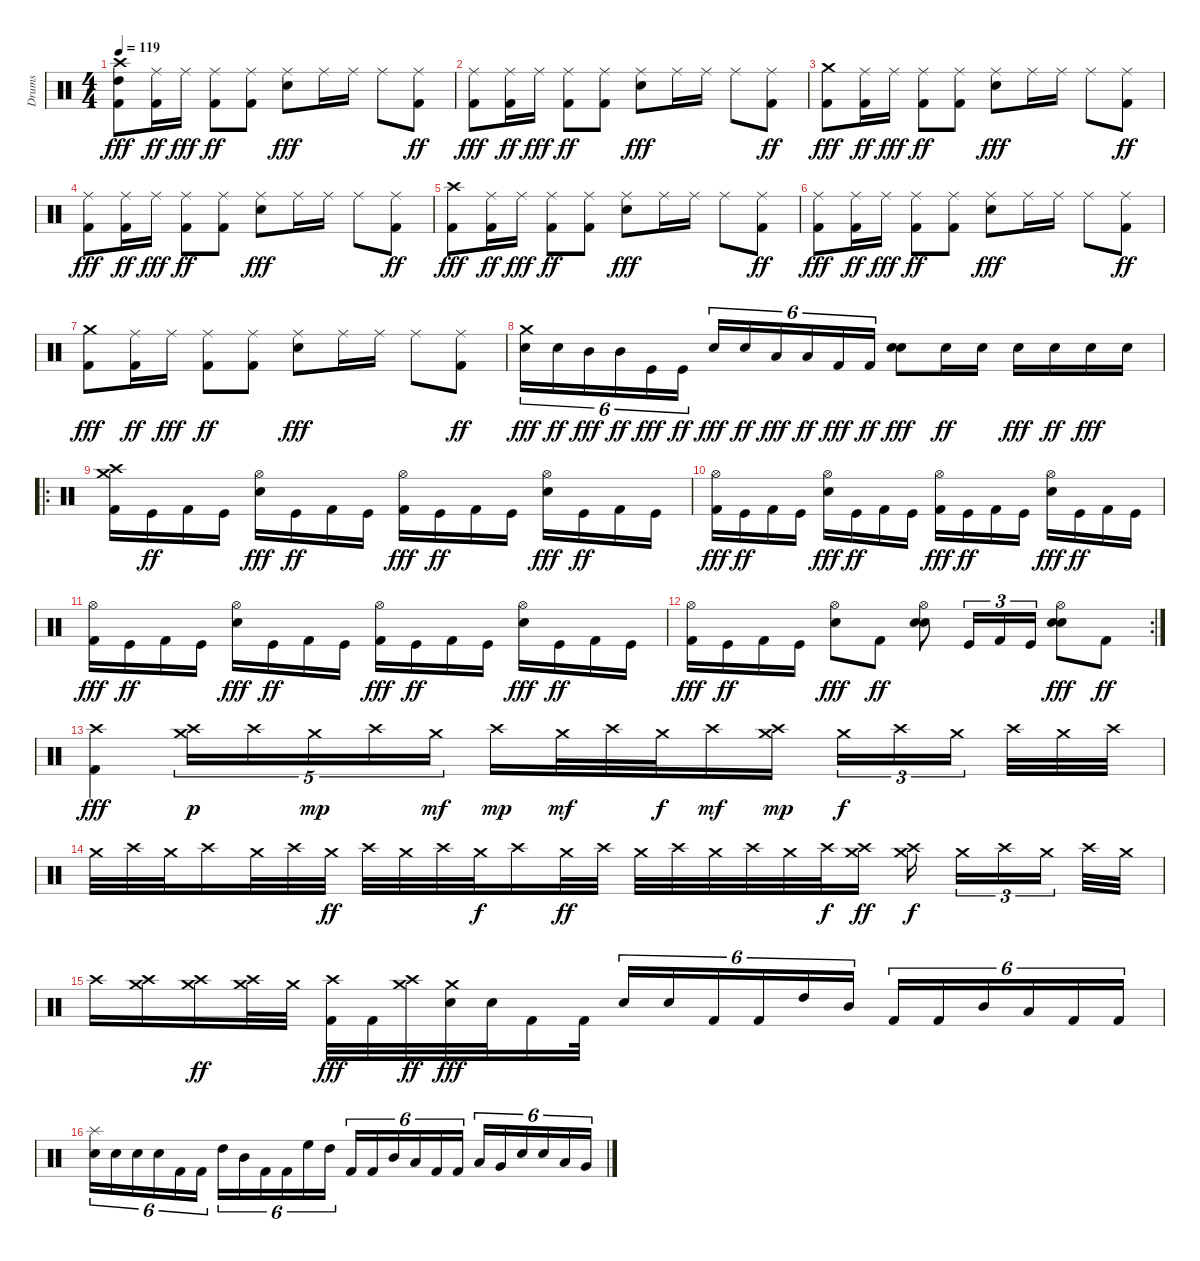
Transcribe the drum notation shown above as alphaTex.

\track ("Drums" "Drums") {instrument percussion}
\staff {score}
\articulation defaults
\ts (4 4)
\tempo 119
\clef neutral
\ks c
("Crash high (hit)" "Kick (hit) 2" "High Tom (hit)").8{dy fff} ("Ride (middle)" "Kick (hit) 2").16{dy ff} "Ride (middle)".16{dy fff} ("Ride (middle)" "Kick (hit) 2").8{dy ff} ("Ride (middle)" "Kick (hit) 2").8 ("Ride (middle)" "Snare (hit) 2").8{dy fff} "Ride (middle)".16 "Ride (middle)".16 "Ride (middle)".8 ("Ride (middle)" "Kick (hit) 2").8{dy ff} |
("Ride (middle)" "Kick (hit) 2").8{dy fff} ("Ride (middle)" "Kick (hit) 2").16{dy ff} "Ride (middle)".16{dy fff} ("Ride (middle)" "Kick (hit) 2").8{dy ff} ("Ride (middle)" "Kick (hit) 2").8 ("Ride (middle)" "Snare (hit) 2").8{dy fff} "Ride (middle)".16 "Ride (middle)".16 "Ride (middle)".8 ("Ride (middle)" "Kick (hit) 2").8{dy ff} |
("Kick (hit) 2" "Crash medium (hit)").8{dy fff} ("Ride (middle)" "Kick (hit) 2").16{dy ff} "Ride (middle)".16{dy fff} ("Ride (middle)" "Kick (hit) 2").8{dy ff} ("Ride (middle)" "Kick (hit) 2").8 ("Ride (middle)" "Snare (hit) 2").8{dy fff} "Ride (middle)".16 "Ride (middle)".16 "Ride (middle)".8 ("Ride (middle)" "Kick (hit) 2").8{dy ff} |
("Ride (middle)" "Kick (hit) 2").8{dy fff} ("Ride (middle)" "Kick (hit) 2").16{dy ff} "Ride (middle)".16{dy fff} ("Ride (middle)" "Kick (hit) 2").8{dy ff} ("Ride (middle)" "Kick (hit) 2").8 ("Ride (middle)" "Snare (hit) 2").8{dy fff} "Ride (middle)".16 "Ride (middle)".16 "Ride (middle)".8 ("Ride (middle)" "Kick (hit) 2").8{dy ff} |
("Kick (hit) 2" "Crash high (hit)").8{dy fff} ("Ride (middle)" "Kick (hit) 2").16{dy ff} "Ride (middle)".16{dy fff} ("Ride (middle)" "Kick (hit) 2").8{dy ff} ("Ride (middle)" "Kick (hit) 2").8 ("Ride (middle)" "Snare (hit) 2").8{dy fff} "Ride (middle)".16 "Ride (middle)".16 "Ride (middle)".8 ("Ride (middle)" "Kick (hit) 2").8{dy ff} |
("Ride (middle)" "Kick (hit) 2").8{dy fff} ("Ride (middle)" "Kick (hit) 2").16{dy ff} "Ride (middle)".16{dy fff} ("Ride (middle)" "Kick (hit) 2").8{dy ff} ("Ride (middle)" "Kick (hit) 2").8 ("Ride (middle)" "Snare (hit) 2").8{dy fff} "Ride (middle)".16 "Ride (middle)".16 "Ride (middle)".8 ("Ride (middle)" "Kick (hit) 2").8{dy ff} |
("Kick (hit) 2" "Crash medium (hit)").8{dy fff} ("Ride (middle)" "Kick (hit) 2").16{dy ff} "Ride (middle)".16{dy fff} ("Ride (middle)" "Kick (hit) 2").8{dy ff} ("Ride (middle)" "Kick (hit) 2").8 ("Ride (middle)" "Snare (hit) 2").8{dy fff} "Ride (middle)".16 "Ride (middle)".16 "Ride (middle)".8 ("Ride (middle)" "Kick (hit) 2").8{dy ff} |
("Electric Snare (hit)" "Crash medium (hit)").16{tu (6 4) dy fff} "Electric Snare (hit)".16{tu (6 4) dy ff} "Mid Tom (hit)".16{tu (6 4) dy fff} "Mid Tom (hit)".16{tu (6 4) dy ff} "Kick (hit)".16{tu (6 4) dy fff} "Kick (hit)".16{tu (6 4) dy ff} "Snare (hit) 2".16{tu (6 4) dy fff} "Electric Snare (hit)".16{tu (6 4) dy ff} "Low Tom (hit)".16{tu (6 4) dy fff} "Low Tom (hit)".16{tu (6 4) dy ff} "Kick (hit) 2".16{tu (6 4) dy fff} "Kick (hit) 2".16{tu (6 4) dy ff} ("Snare (hit) 2" "Snare (hit) 2").8{dy fff} "Snare (hit) 2".16{dy ff} "Snare (hit) 2".16 "Snare (hit) 2".16{dy fff} "Snare (hit) 2".16{dy ff} "Snare (hit) 2".16{dy fff} "Snare (hit) 2".16 |
\ro
("Kick (hit) 2" "Crash high (hit)" "Crash medium (hit)").16 "Kick (hit)".16{dy ff} "Kick (hit) 2".16 "Kick (hit)".16 ("Hi-Hat (open)" "Snare (hit) 2").16{dy fff} "Kick (hit)".16{dy ff} "Kick (hit) 2".16 "Kick (hit)".16 ("Hi-Hat (open)" "Kick (hit) 2").16{dy fff} "Kick (hit)".16{dy ff} "Kick (hit) 2".16 "Kick (hit)".16 ("Hi-Hat (open)" "Snare (hit) 2").16{dy fff} "Kick (hit)".16{dy ff} "Kick (hit) 2".16 "Kick (hit)".16 |
("Hi-Hat (open)" "Kick (hit) 2").16{dy fff} "Kick (hit)".16{dy ff} "Kick (hit) 2".16 "Kick (hit)".16 ("Hi-Hat (open)" "Snare (hit) 2").16{dy fff} "Kick (hit)".16{dy ff} "Kick (hit) 2".16 "Kick (hit)".16 ("Hi-Hat (open)" "Kick (hit) 2").16{dy fff} "Kick (hit)".16{dy ff} "Kick (hit) 2".16 "Kick (hit)".16 ("Hi-Hat (open)" "Snare (hit) 2").16{dy fff} "Kick (hit)".16{dy ff} "Kick (hit) 2".16 "Kick (hit)".16 |
("Hi-Hat (open)" "Kick (hit) 2").16{dy fff} "Kick (hit)".16{dy ff} "Kick (hit) 2".16 "Kick (hit)".16 ("Hi-Hat (open)" "Snare (hit) 2").16{dy fff} "Kick (hit)".16{dy ff} "Kick (hit) 2".16 "Kick (hit)".16 ("Hi-Hat (open)" "Kick (hit) 2").16{dy fff} "Kick (hit)".16{dy ff} "Kick (hit) 2".16 "Kick (hit)".16 ("Hi-Hat (open)" "Snare (hit) 2").16{dy fff} "Kick (hit)".16{dy ff} "Kick (hit) 2".16 "Kick (hit)".16 |
\rc 2
("Hi-Hat (open)" "Kick (hit) 2").16{dy fff} "Kick (hit)".16{dy ff} "Kick (hit) 2".16 "Kick (hit)".16 ("Hi-Hat (open)" "Snare (hit) 2").8{dy fff} "Kick (hit) 2".8{dy ff} ("Hi-Hat (open)" "Snare (hit) 2" "Snare (hit) 2").8 "Kick (hit)".16{tu (3 2)} "Kick (hit) 2".16{tu (3 2)} "Kick (hit)".16{tu (3 2)} ("Hi-Hat (open)" "Snare (hit) 2" "Snare (hit) 2").8{dy fff} "Kick (hit) 2".8{dy ff} |
("Kick (hit) 2" "Crash high (hit)").4{dy fff} ("Crash high (hit)" "Crash medium (hit)").16{tu (5 4) dy p} "Crash high (hit)".16{tu (5 4)} "Crash medium (hit)".16{tu (5 4) dy mp} "Crash high (hit)".16{tu (5 4)} "Crash medium (hit)".16{tu (5 4) dy mf} "Crash high (hit)".16{dy mp} "Crash medium (hit)".32{dy mf} "Crash high (hit)".32 "Crash medium (hit)".32{dy f} "Crash high (hit)".16{dy mf} ("Crash medium (hit)" "Crash high (hit)").16{dy mp} "Crash medium (hit)".16{tu (3 2) dy f} "Crash high (hit)".16{tu (3 2)} "Crash medium (hit)".16{tu (3 2)} "Crash high (hit)".32 "Crash medium (hit)".32 "Crash high (hit)".32 |
"Crash medium (hit)".32 "Crash high (hit)".32 "Crash medium (hit)".32 "Crash high (hit)".16 "Crash medium (hit)".32 "Crash high (hit)".32 "Crash medium (hit)".32{dy ff} "Crash high (hit)".32 "Crash medium (hit)".32 "Crash high (hit)".32 "Crash medium (hit)".32{dy f} "Crash high (hit)".16 "Crash medium (hit)".32{dy ff} "Crash high (hit)".32 "Crash medium (hit)".32 "Crash high (hit)".32 "Crash medium (hit)".32 "Crash high (hit)".32 "Crash medium (hit)".32 "Crash high (hit)".32{dy f} ("Crash medium (hit)" "Crash high (hit)").16{dy ff} ("Crash medium (hit)" "Crash high (hit)").16{dy f} "Crash medium (hit)".16{tu (3 2)} "Crash high (hit)".16{tu (3 2)} "Crash medium (hit)".16{tu (3 2)} "Crash high (hit)".32 "Crash medium (hit)".32 |
"Crash high (hit)".16 ("Crash medium (hit)" "Crash high (hit)").16 ("Crash medium (hit)" "Crash high (hit)").16{dy ff} ("Crash medium (hit)" "Crash high (hit)").32 "Crash medium (hit)".32 ("Crash high (hit)" "Kick (hit) 2").32{dy fff} "Kick (hit) 2".32 ("Crash medium (hit)" "Crash high (hit)").32{dy ff} ("Electric Snare (hit)" "Crash medium (hit)").32{dy fff} "Electric Snare (hit)".32 "Kick (hit) 2".16 "Kick (hit) 2".32 "Snare (hit) 2".16{tu (6 4)} "Snare (hit) 2".16{tu (6 4)} "Kick (hit) 2".16{tu (6 4)} "Kick (hit) 2".16{tu (6 4)} "High Tom (hit)".16{tu (6 4)} "Mid Tom (hit)".16{tu (6 4)} "Kick (hit) 2".16{tu (6 4)} "Kick (hit) 2".16{tu (6 4)} "Mid Tom (hit)".16{tu (6 4)} "Low Tom (hit)".16{tu (6 4)} "Kick (hit) 2".16{tu (6 4)} "Kick (hit) 2".16{tu (6 4)} |
("Snare (hit) 2" "Splash (hit)").16{tu (6 4)} "Snare (hit) 2".16{tu (6 4)} "Electric Snare (hit)".16{tu (6 4)} "Snare (hit) 2".16{tu (6 4)} "Kick (hit) 2".16{tu (6 4)} "Kick (hit) 2".16{tu (6 4)} "High Tom (hit)".16{tu (6 4)} "Mid Tom (hit)".16{tu (6 4)} "Kick (hit) 2".16{tu (6 4)} "Kick (hit) 2".16{tu (6 4)} "High Floor Tom (hit)".16{tu (6 4)} "High Tom (hit)".16{tu (6 4)} "Kick (hit) 2".16{tu (6 4)} "Kick (hit) 2".16{tu (6 4)} "Mid Tom (hit)".16{tu (6 4)} "Low Tom (hit)".16{tu (6 4)} "Kick (hit) 2".16{tu (6 4)} "Kick (hit) 2".16{tu (6 4)} "Low Tom (hit)".16{tu (6 4)} "Very Low Tom (hit)".16{tu (6 4)} "Snare (hit) 2".16{tu (6 4)} "Snare (hit) 2".16{tu (6 4)} "Low Tom (hit)".16{tu (6 4)} "Very Low Tom (hit)".16{tu (6 4)}
